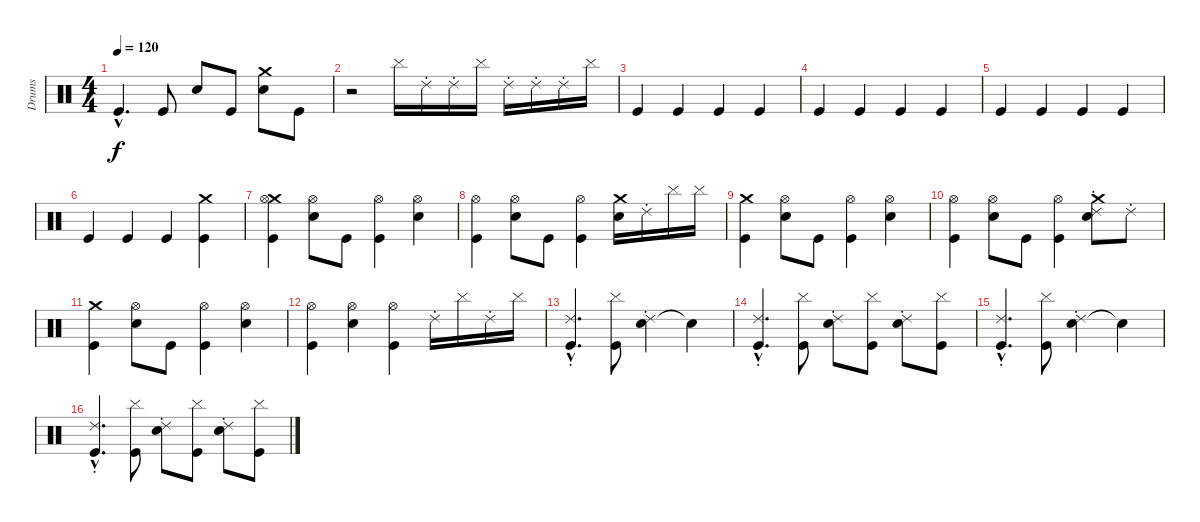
\track ("Drums" "Drums") {instrument percussion}
\staff {score}
\articulation defaults
\ts (4 4)
\tempo 120
\clef neutral
\ks c "Kick (hit)"{hac}.4{d dy f} "Kick (hit)".8 "Electric Snare (hit)".8 "Kick (hit)".8
("Electric Snare (hit)" "Crash medium (hit)").8 "Kick (hit)".8 |
r.2 "Cymbal (hit)".16 "Ride (choke) 2".16 "Ride (choke) 2".16 "Cymbal (hit)".16 "Ride (choke) 2".16 "Ride (choke) 2".16 "Ride (choke) 2".16 "Cymbal (hit)".16 |
"Kick (hit)".4 "Kick (hit)".4 "Kick (hit)".4 "Kick (hit)".4 |
"Kick (hit)".4 "Kick (hit)".4 "Kick (hit)".4 "Kick (hit)".4 |
"Kick (hit)".4 "Kick (hit)".4 "Kick (hit)".4 "Kick (hit)".4 |
"Kick (hit)".4 "Kick (hit)".4 "Kick (hit)".4 ("Crash medium (hit)" "Kick (hit)").4 |
("Crash medium (hit)" "Kick (hit)" "Hi-Hat (open)").4 ("Electric Snare (hit)" "Hi-Hat (open)").8 "Kick (hit)".8 ("Kick (hit)" "Hi-Hat (open)").4 ("Electric Snare (hit)" "Hi-Hat (open)").4 |
("Kick (hit)" "Hi-Hat (open)").4 ("Electric Snare (hit)" "Hi-Hat (open)").8 "Kick (hit)".8 ("Kick (hit)" "Hi-Hat (open)").4 ("Electric Snare (hit)" "Crash medium (hit)").16 "Ride (choke) 2".16 "Cymbal (hit)".16 "Cymbal (hit)".16 |
("Crash medium (hit)" "Kick (hit)").4 ("Electric Snare (hit)" "Hi-Hat (open)").8 "Kick (hit)".8 ("Kick (hit)" "Hi-Hat (open)").4 ("Electric Snare (hit)" "Hi-Hat (open)").4 |
("Kick (hit)" "Hi-Hat (open)").4 ("Electric Snare (hit)" "Hi-Hat (open)").8 "Kick (hit)".8 ("Kick (hit)" "Hi-Hat (open)").4 ("Electric Snare (hit)" "Crash medium (hit)" "Ride (choke) 2").8 "Ride (choke) 2".8 |
("Crash medium (hit)" "Kick (hit)").4 ("Electric Snare (hit)" "Hi-Hat (open)").8 "Kick (hit)".8 ("Kick (hit)" "Hi-Hat (open)").4 ("Electric Snare (hit)" "Hi-Hat (open)").4 |
("Kick (hit)" "Hi-Hat (open)").4 ("Electric Snare (hit)" "Hi-Hat (open)").4 ("Kick (hit)" "Hi-Hat (open)").4 "Ride (choke) 2".16 "Cymbal (hit)".16 "Ride (choke) 2".16 "Cymbal (hit)".16 |
("Kick (hit)"{hac} "Ride (choke) 2"{hac}).4{d} ("Kick (hit)" "Cymbal (hit)").8 ("Electric Snare (hit)" "Ride (choke) 2").4 "Snare (hit)"{t}.4 |
("Kick (hit)"{hac} "Ride (choke) 2"{hac}).4{d} ("Kick (hit)" "Cymbal (hit)").8 ("Electric Snare (hit)" "Ride (choke) 2").8 ("Kick (hit)" "Cymbal (hit)").8 ("Electric Snare (hit)" "Ride (choke) 2").8 ("Kick (hit)" "Cymbal (hit)").8 |
("Kick (hit)"{hac} "Ride (choke) 2"{hac}).4{d} ("Kick (hit)" "Cymbal (hit)").8 ("Electric Snare (hit)" "Ride (choke) 2").4 "Snare (hit)"{t}.4 |
("Kick (hit)"{hac} "Ride (choke) 2"{hac}).4{d} ("Kick (hit)" "Cymbal (hit)").8 ("Electric Snare (hit)" "Ride (choke) 2").8 ("Kick (hit)" "Cymbal (hit)").8 ("Electric Snare (hit)" "Ride (choke) 2").8 ("Kick (hit)" "Cymbal (hit)").8
